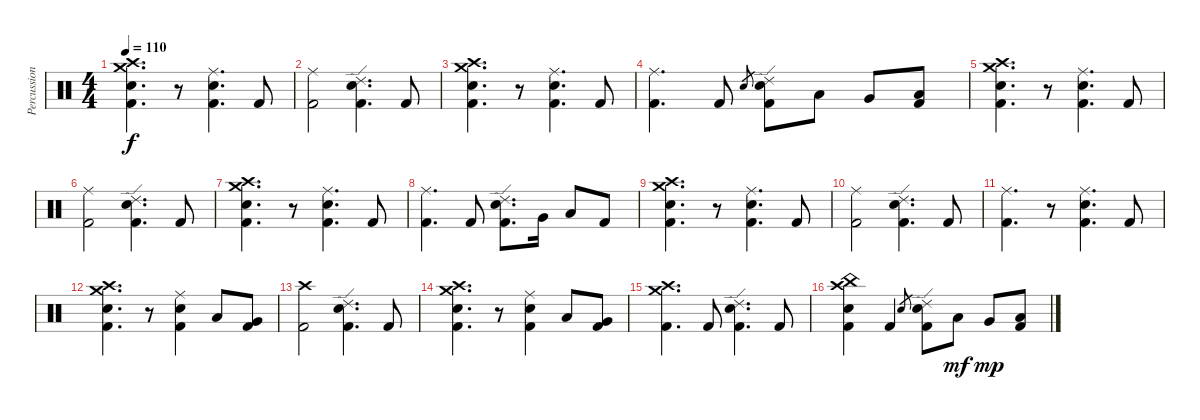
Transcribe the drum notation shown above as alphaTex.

\track ("Percussion" "Percussion") {instrument percussion}
\staff {score}
\articulation defaults
\ts (4 4)
\tempo 110
\clef neutral
\ks c
("Crash high (hit)" "Crash medium (hit)" "Electric Snare (hit)" "Kick (hit) 2").4{d dy f} r.8 ("Ride (middle)" "Electric Snare (hit)" "Kick (hit) 2").4{d} "Kick (hit) 2".8 |
("Ride (middle)" "Kick (hit) 2").2 ("Ride (edge) 2" "Electric Snare (hit)" "Kick (hit) 2").4{d} "Kick (hit) 2".8 |
("Crash high (hit)" "Crash medium (hit)" "Electric Snare (hit)" "Kick (hit) 2").4{d} r.8 ("Ride (middle)" "Electric Snare (hit)" "Kick (hit) 2").4{d} "Kick (hit) 2".8 |
("Ride (middle)" "Kick (hit) 2").4{d} "Kick (hit) 2".8 "Electric Snare (hit)".8{gr} ("Ride (edge) 2" "Electric Snare (hit)" "Kick (hit) 2").8 "Low Tom (hit)".8 "Very Low Tom (hit)".8 ("Low Floor Tom (hit)" "Kick (hit) 2").8 |
("Crash high (hit)" "Crash medium (hit)" "Electric Snare (hit)" "Kick (hit) 2").4{d} r.8 ("Ride (middle)" "Electric Snare (hit)" "Kick (hit) 2").4{d} "Kick (hit) 2".8 |
("Ride (middle)" "Kick (hit) 2").2 ("Ride (edge) 2" "Electric Snare (hit)" "Kick (hit) 2").4{d} "Kick (hit) 2".8 |
("Crash high (hit)" "Crash medium (hit)" "Electric Snare (hit)" "Kick (hit) 2").4{d} r.8 ("Ride (middle)" "Electric Snare (hit)" "Kick (hit) 2").4{d} "Kick (hit) 2".8 |
("Ride (middle)" "Kick (hit) 2").4{d} "Kick (hit) 2".8 ("Ride (edge) 2" "Electric Snare (hit)" "Kick (hit) 2").8{d} "Very Low Tom (hit)".16 "Low Floor Tom (hit)".8 "Kick (hit) 2".8 |
("Crash high (hit)" "Crash medium (hit)" "Electric Snare (hit)" "Kick (hit) 2").4{d} r.8 ("Ride (middle)" "Electric Snare (hit)" "Kick (hit) 2").4{d} "Kick (hit) 2".8 |
("Ride (middle)" "Kick (hit) 2").2 ("Ride (edge) 2" "Electric Snare (hit)" "Kick (hit) 2").4{d} "Kick (hit) 2".8 |
("Ride (middle)" "Kick (hit) 2").4{d} r.8 ("Ride (middle)" "Electric Snare (hit)" "Kick (hit) 2").4{d} "Kick (hit) 2".8 |
("Crash high (hit)" "Crash medium (hit)" "Electric Snare (hit)" "Kick (hit) 2").4{d} r.8 ("Ride (middle)" "Electric Snare (hit)" "Kick (hit) 2").4 "Low Tom (hit)".8 ("Very Low Tom (hit)" "Kick (hit) 2").8 |
("Crash high (hit)" "Kick (hit) 2").2 ("Ride (edge) 2" "Electric Snare (hit)" "Kick (hit) 2").4{d} "Kick (hit) 2".8 |
("Crash high (hit)" "Crash medium (hit)" "Electric Snare (hit)" "Kick (hit) 2").4{d} r.8 ("Ride (middle)" "Electric Snare (hit)" "Kick (hit) 2").4 "Low Tom (hit)".8 ("Very Low Tom (hit)" "Kick (hit) 2").8 |
("Crash high (hit)" "Crash medium (hit)" "Kick (hit) 2").4{d} "Kick (hit) 2".8 ("Ride (edge) 2" "Electric Snare (hit)" "Kick (hit) 2").4{d} "Kick (hit) 2".8 |
("Crash high (hit)" "China (hit)" "Snare (hit) 2" "Kick (hit) 2").4 "Kick (hit) 2".4 "Electric Snare (hit)".8{gr} ("Ride (edge) 2" "Electric Snare (hit)" "Kick (hit) 2").8 "Low Tom (hit)".8{dy mf} "Very Low Tom (hit)".8{dy mp} ("Low Floor Tom (hit)" "Kick (hit) 2").8
